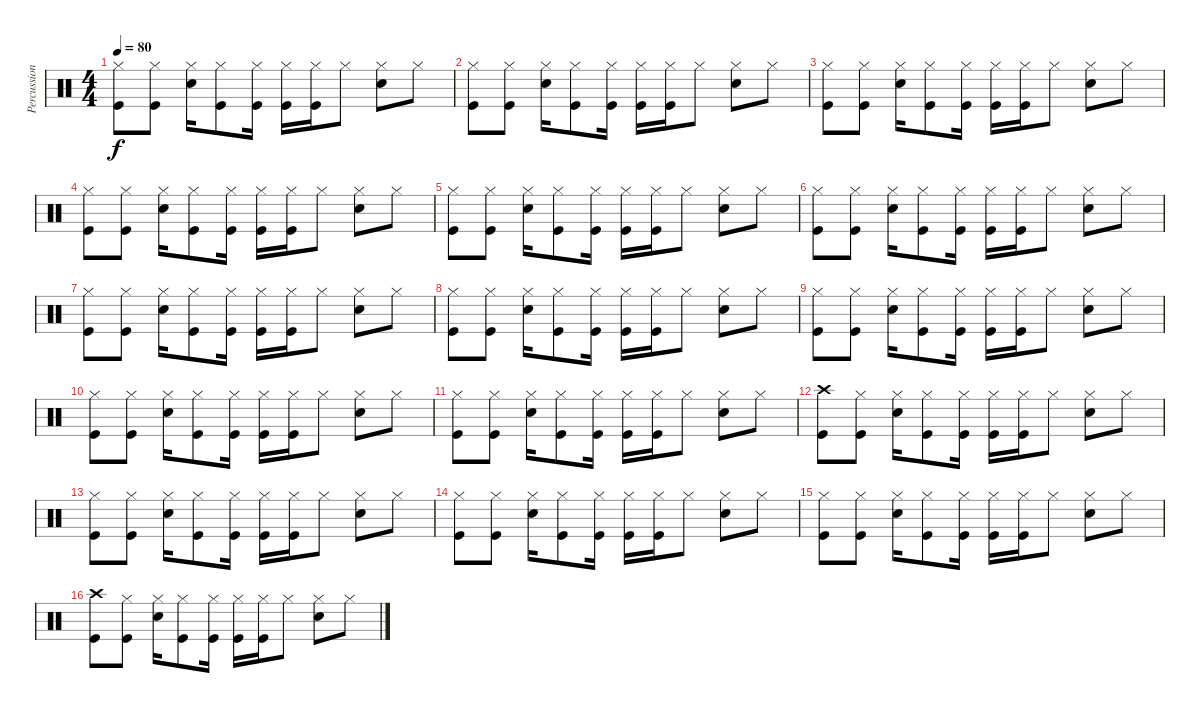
\track ("Percussion" "Percussion") {instrument percussion}
\staff {score}
\articulation defaults
\ts (4 4)
\tempo 80
\clef neutral
\ks c
("Hi-Hat (closed)" "Kick (hit)").8{dy f} ("Hi-Hat (closed)" "Kick (hit)").8 ("Hi-Hat (closed)" "Snare (hit) 2").16 ("Hi-Hat (closed)" "Kick (hit)").8 ("Hi-Hat (closed)" "Kick (hit)").16 ("Hi-Hat (closed)" "Kick (hit)").16 ("Hi-Hat (closed)" "Kick (hit)").16 "Hi-Hat (closed)".8 ("Hi-Hat (closed)" "Snare (hit) 2").8 "Hi-Hat (closed)".8 |
("Hi-Hat (closed)" "Kick (hit)").8 ("Hi-Hat (closed)" "Kick (hit)").8 ("Hi-Hat (closed)" "Snare (hit) 2").16 ("Hi-Hat (closed)" "Kick (hit)").8 ("Hi-Hat (closed)" "Kick (hit)").16 ("Hi-Hat (closed)" "Kick (hit)").16 ("Hi-Hat (closed)" "Kick (hit)").16 "Hi-Hat (closed)".8 ("Hi-Hat (closed)" "Snare (hit) 2").8 "Hi-Hat (closed)".8 |
("Hi-Hat (closed)" "Kick (hit)").8 ("Hi-Hat (closed)" "Kick (hit)").8 ("Hi-Hat (closed)" "Snare (hit) 2").16 ("Hi-Hat (closed)" "Kick (hit)").8 ("Hi-Hat (closed)" "Kick (hit)").16 ("Hi-Hat (closed)" "Kick (hit)").16 ("Hi-Hat (closed)" "Kick (hit)").16 "Hi-Hat (closed)".8 ("Hi-Hat (closed)" "Snare (hit) 2").8 "Hi-Hat (closed)".8 |
("Hi-Hat (closed)" "Kick (hit)").8 ("Hi-Hat (closed)" "Kick (hit)").8 ("Hi-Hat (closed)" "Snare (hit) 2").16 ("Hi-Hat (closed)" "Kick (hit)").8 ("Hi-Hat (closed)" "Kick (hit)").16 ("Hi-Hat (closed)" "Kick (hit)").16 ("Hi-Hat (closed)" "Kick (hit)").16 "Hi-Hat (closed)".8 ("Hi-Hat (closed)" "Snare (hit) 2").8 "Hi-Hat (closed)".8 |
("Hi-Hat (closed)" "Kick (hit)").8 ("Hi-Hat (closed)" "Kick (hit)").8 ("Hi-Hat (closed)" "Snare (hit) 2").16 ("Hi-Hat (closed)" "Kick (hit)").8 ("Hi-Hat (closed)" "Kick (hit)").16 ("Hi-Hat (closed)" "Kick (hit)").16 ("Hi-Hat (closed)" "Kick (hit)").16 "Hi-Hat (closed)".8 ("Hi-Hat (closed)" "Snare (hit) 2").8 "Hi-Hat (closed)".8 |
("Hi-Hat (closed)" "Kick (hit)").8 ("Hi-Hat (closed)" "Kick (hit)").8 ("Hi-Hat (closed)" "Snare (hit) 2").16 ("Hi-Hat (closed)" "Kick (hit)").8 ("Hi-Hat (closed)" "Kick (hit)").16 ("Hi-Hat (closed)" "Kick (hit)").16 ("Hi-Hat (closed)" "Kick (hit)").16 "Hi-Hat (closed)".8 ("Hi-Hat (closed)" "Snare (hit) 2").8 "Hi-Hat (closed)".8 |
("Hi-Hat (closed)" "Kick (hit)").8 ("Hi-Hat (closed)" "Kick (hit)").8 ("Hi-Hat (closed)" "Snare (hit) 2").16 ("Hi-Hat (closed)" "Kick (hit)").8 ("Hi-Hat (closed)" "Kick (hit)").16 ("Hi-Hat (closed)" "Kick (hit)").16 ("Hi-Hat (closed)" "Kick (hit)").16 "Hi-Hat (closed)".8 ("Hi-Hat (closed)" "Snare (hit) 2").8 "Hi-Hat (closed)".8 |
("Hi-Hat (closed)" "Kick (hit)").8 ("Hi-Hat (closed)" "Kick (hit)").8 ("Hi-Hat (closed)" "Snare (hit) 2").16 ("Hi-Hat (closed)" "Kick (hit)").8 ("Hi-Hat (closed)" "Kick (hit)").16 ("Hi-Hat (closed)" "Kick (hit)").16 ("Hi-Hat (closed)" "Kick (hit)").16 "Hi-Hat (closed)".8 ("Hi-Hat (closed)" "Snare (hit) 2").8 "Hi-Hat (closed)".8 |
("Hi-Hat (closed)" "Kick (hit)").8 ("Hi-Hat (closed)" "Kick (hit)").8 ("Hi-Hat (closed)" "Snare (hit) 2").16 ("Hi-Hat (closed)" "Kick (hit)").8 ("Hi-Hat (closed)" "Kick (hit)").16 ("Hi-Hat (closed)" "Kick (hit)").16 ("Hi-Hat (closed)" "Kick (hit)").16 "Hi-Hat (closed)".8 ("Hi-Hat (closed)" "Snare (hit) 2").8 "Hi-Hat (closed)".8 |
("Hi-Hat (closed)" "Kick (hit)").8 ("Hi-Hat (closed)" "Kick (hit)").8 ("Hi-Hat (closed)" "Snare (hit) 2").16 ("Hi-Hat (closed)" "Kick (hit)").8 ("Hi-Hat (closed)" "Kick (hit)").16 ("Hi-Hat (closed)" "Kick (hit)").16 ("Hi-Hat (closed)" "Kick (hit)").16 "Hi-Hat (closed)".8 ("Hi-Hat (closed)" "Snare (hit) 2").8 "Hi-Hat (closed)".8 |
("Hi-Hat (closed)" "Kick (hit)").8 ("Hi-Hat (closed)" "Kick (hit)").8 ("Hi-Hat (closed)" "Snare (hit) 2").16 ("Hi-Hat (closed)" "Kick (hit)").8 ("Hi-Hat (closed)" "Kick (hit)").16 ("Hi-Hat (closed)" "Kick (hit)").16 ("Hi-Hat (closed)" "Kick (hit)").16 "Hi-Hat (closed)".8 ("Hi-Hat (closed)" "Snare (hit) 2").8 "Hi-Hat (closed)".8 |
("Kick (hit)" "Crash high (hit)").8 ("Hi-Hat (closed)" "Kick (hit)").8 ("Hi-Hat (closed)" "Snare (hit) 2").16 ("Hi-Hat (closed)" "Kick (hit)").8 ("Hi-Hat (closed)" "Kick (hit)").16 ("Hi-Hat (closed)" "Kick (hit)").16 ("Hi-Hat (closed)" "Kick (hit)").16 "Hi-Hat (closed)".8 ("Hi-Hat (closed)" "Snare (hit) 2").8 "Hi-Hat (closed)".8 |
("Hi-Hat (closed)" "Kick (hit)").8 ("Hi-Hat (closed)" "Kick (hit)").8 ("Hi-Hat (closed)" "Snare (hit) 2").16 ("Hi-Hat (closed)" "Kick (hit)").8 ("Hi-Hat (closed)" "Kick (hit)").16 ("Hi-Hat (closed)" "Kick (hit)").16 ("Hi-Hat (closed)" "Kick (hit)").16 "Hi-Hat (closed)".8 ("Hi-Hat (closed)" "Snare (hit) 2").8 "Hi-Hat (closed)".8 |
("Hi-Hat (closed)" "Kick (hit)").8 ("Hi-Hat (closed)" "Kick (hit)").8 ("Hi-Hat (closed)" "Snare (hit) 2").16 ("Hi-Hat (closed)" "Kick (hit)").8 ("Hi-Hat (closed)" "Kick (hit)").16 ("Hi-Hat (closed)" "Kick (hit)").16 ("Hi-Hat (closed)" "Kick (hit)").16 "Hi-Hat (closed)".8 ("Hi-Hat (closed)" "Snare (hit) 2").8 "Hi-Hat (closed)".8 |
("Hi-Hat (closed)" "Kick (hit)").8 ("Hi-Hat (closed)" "Kick (hit)").8 ("Hi-Hat (closed)" "Snare (hit) 2").16 ("Hi-Hat (closed)" "Kick (hit)").8 ("Hi-Hat (closed)" "Kick (hit)").16 ("Hi-Hat (closed)" "Kick (hit)").16 ("Hi-Hat (closed)" "Kick (hit)").16 "Hi-Hat (closed)".8 ("Hi-Hat (closed)" "Snare (hit) 2").8 "Hi-Hat (closed)".8 |
("Kick (hit)" "Crash high (hit)").8 ("Hi-Hat (closed)" "Kick (hit)").8 ("Hi-Hat (closed)" "Snare (hit) 2").16 ("Hi-Hat (closed)" "Kick (hit)").8 ("Hi-Hat (closed)" "Kick (hit)").16 ("Hi-Hat (closed)" "Kick (hit)").16 ("Hi-Hat (closed)" "Kick (hit)").16 "Hi-Hat (closed)".8 ("Hi-Hat (closed)" "Snare (hit) 2").8 "Hi-Hat (closed)".8
